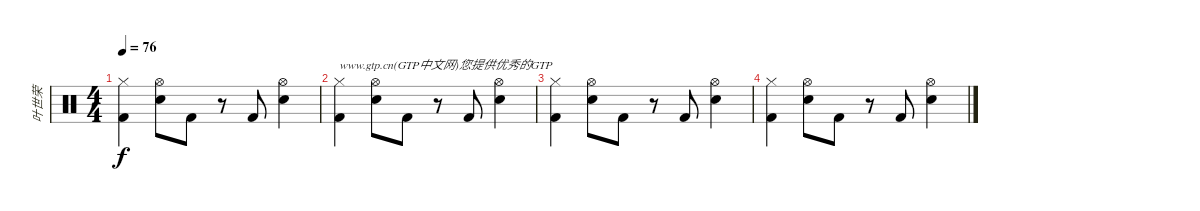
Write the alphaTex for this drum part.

\track ("叶世荣" "叶世荣") {instrument percussion}
\staff {score}
\articulation defaults
\ts (4 4)
\tempo 76
\clef neutral
\ks c
("Hi-Hat (closed)" "Kick (hit) 2").4{dy f} ("Hi-Hat (open)" "Snare (hit) 2").8 "Kick (hit) 2".8 r.8 "Kick (hit) 2".8 ("Hi-Hat (open)" "Snare (hit) 2").4 |
("Hi-Hat (closed)" "Kick (hit) 2").4{txt "www.gtp.cn(GTP中文网)您提供优秀的GTP"} ("Hi-Hat (open)" "Snare (hit) 2").8 "Kick (hit) 2".8 r.8 "Kick (hit) 2".8 ("Hi-Hat (open)" "Snare (hit) 2").4 |
("Hi-Hat (closed)" "Kick (hit) 2").4 ("Hi-Hat (open)" "Snare (hit) 2").8 "Kick (hit) 2".8 r.8 "Kick (hit) 2".8 ("Hi-Hat (open)" "Snare (hit) 2").4 |
("Hi-Hat (closed)" "Kick (hit) 2").4 ("Hi-Hat (open)" "Snare (hit) 2").8 "Kick (hit) 2".8 r.8 "Kick (hit) 2".8 ("Hi-Hat (open)" "Snare (hit) 2").4
